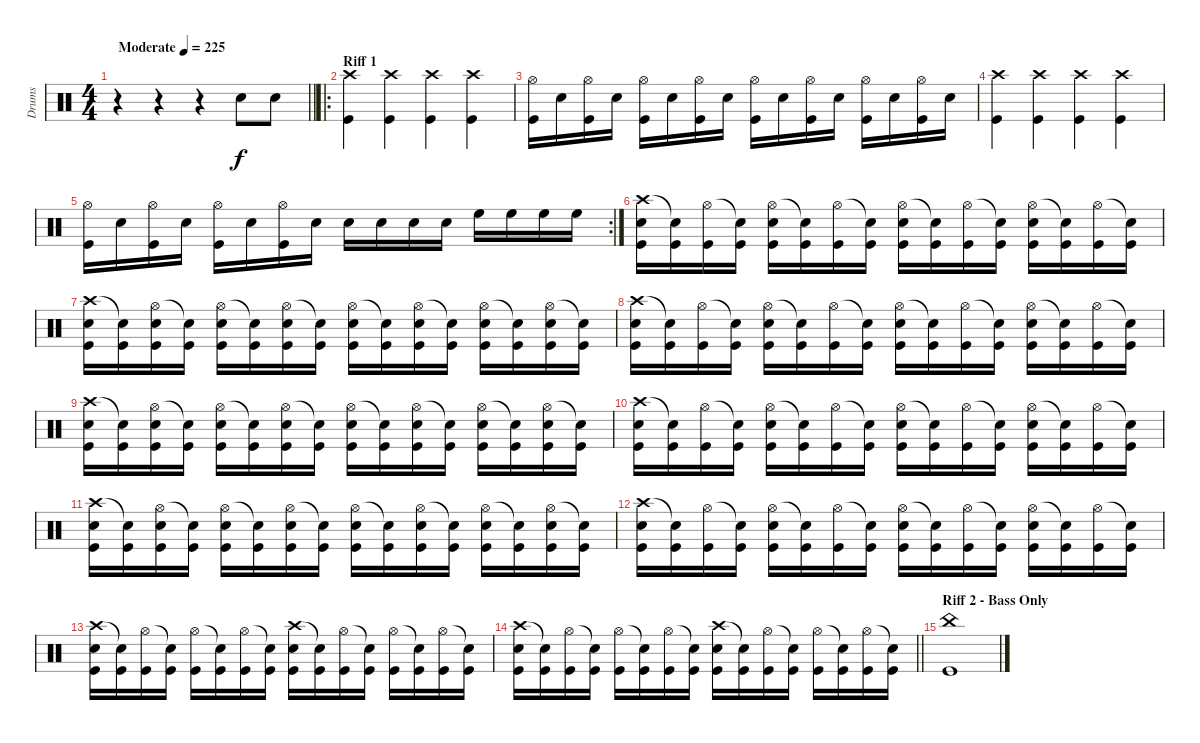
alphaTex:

\track ("Drums" "Drums") {instrument percussion}
\staff {score}
\articulation defaults
\ts (4 4)
\tempo (225 "Moderate")
\clef neutral
\barLineRight lightlight
\ks c
r.4{dy f} r.4 r.4 "Electric Snare (hit)".8 "Electric Snare (hit)".8 |
\ro
\section ("" "Riff 1")
("Crash high (hit)" "Kick (hit)").4 ("Crash high (hit)" "Kick (hit)").4 ("Crash high (hit)" "Kick (hit)").4 ("Crash high (hit)" "Kick (hit)").4 |
("Hi-Hat (open)" "Kick (hit)").16 "Electric Snare (hit)".16 ("Hi-Hat (open)" "Kick (hit)").16 "Electric Snare (hit)".16 ("Hi-Hat (open)" "Kick (hit)").16 "Electric Snare (hit)".16 ("Hi-Hat (open)" "Kick (hit)").16 "Electric Snare (hit)".16 ("Hi-Hat (open)" "Kick (hit)").16 "Electric Snare (hit)".16 ("Hi-Hat (open)" "Kick (hit)").16 "Electric Snare (hit)".16 ("Hi-Hat (open)" "Kick (hit)").16 "Electric Snare (hit)".16 ("Hi-Hat (open)" "Kick (hit)").16 "Electric Snare (hit)".16 |
("Crash high (hit)" "Kick (hit)").4 ("Crash high (hit)" "Kick (hit)").4 ("Crash high (hit)" "Kick (hit)").4 ("Crash high (hit)" "Kick (hit)").4 |
\rc 2
("Hi-Hat (open)" "Kick (hit)").16 "Electric Snare (hit)".16 ("Hi-Hat (open)" "Kick (hit)").16 "Electric Snare (hit)".16 ("Hi-Hat (open)" "Kick (hit)").16 "Electric Snare (hit)".16 ("Hi-Hat (open)" "Kick (hit)").16 "Electric Snare (hit)".16 "Electric Snare (hit)".16 "Electric Snare (hit)".16 "Electric Snare (hit)".16 "Electric Snare (hit)".16 "High Floor Tom (hit)".16 "High Floor Tom (hit)".16 "High Floor Tom (hit)".16 "High Floor Tom (hit)".16 |
("Crash high (hit)" "Electric Snare (hit)" "Kick (hit)").16 ("Snare (hit)"{t} "Kick (hit)").16 ("Hi-Hat (open)" "Kick (hit)").16 ("Snare (hit)"{t} "Kick (hit)").16 ("Hi-Hat (open)" "Electric Snare (hit)" "Kick (hit)").16 ("Snare (hit)"{t} "Kick (hit)").16 ("Hi-Hat (open)" "Kick (hit)").16 ("Snare (hit)"{t} "Kick (hit)").16 ("Hi-Hat (open)" "Electric Snare (hit)" "Kick (hit)").16 ("Snare (hit)"{t} "Kick (hit)").16 ("Hi-Hat (open)" "Kick (hit)").16 ("Snare (hit)"{t} "Kick (hit)").16 ("Hi-Hat (open)" "Electric Snare (hit)" "Kick (hit)").16 ("Snare (hit)"{t} "Kick (hit)").16 ("Hi-Hat (open)" "Kick (hit)").16 ("Snare (hit)"{t} "Kick (hit)").16 |
("Crash high (hit)" "Electric Snare (hit)" "Kick (hit)").16 ("Snare (hit)"{t} "Kick (hit)").16 ("Hi-Hat (open)" "Electric Snare (hit)" "Kick (hit)").16 ("Snare (hit)"{t} "Kick (hit)").16 ("Hi-Hat (open)" "Electric Snare (hit)" "Kick (hit)").16 ("Snare (hit)"{t} "Kick (hit)").16 ("Hi-Hat (open)" "Electric Snare (hit)" "Kick (hit)").16 ("Snare (hit)"{t} "Kick (hit)").16 ("Hi-Hat (open)" "Electric Snare (hit)" "Kick (hit)").16 ("Snare (hit)"{t} "Kick (hit)").16 ("Hi-Hat (open)" "Electric Snare (hit)" "Kick (hit)").16 ("Snare (hit)"{t} "Kick (hit)").16 ("Hi-Hat (open)" "Electric Snare (hit)" "Kick (hit)").16 ("Snare (hit)"{t} "Kick (hit)").16 ("Hi-Hat (open)" "Electric Snare (hit)" "Kick (hit)").16 ("Snare (hit)"{t} "Kick (hit)").16 |
("Crash high (hit)" "Electric Snare (hit)" "Kick (hit)").16 ("Snare (hit)"{t} "Kick (hit)").16 ("Hi-Hat (open)" "Kick (hit)").16 ("Snare (hit)"{t} "Kick (hit)").16 ("Hi-Hat (open)" "Electric Snare (hit)" "Kick (hit)").16 ("Snare (hit)"{t} "Kick (hit)").16 ("Hi-Hat (open)" "Kick (hit)").16 ("Snare (hit)"{t} "Kick (hit)").16 ("Hi-Hat (open)" "Electric Snare (hit)" "Kick (hit)").16 ("Snare (hit)"{t} "Kick (hit)").16 ("Hi-Hat (open)" "Kick (hit)").16 ("Snare (hit)"{t} "Kick (hit)").16 ("Hi-Hat (open)" "Electric Snare (hit)" "Kick (hit)").16 ("Snare (hit)"{t} "Kick (hit)").16 ("Hi-Hat (open)" "Kick (hit)").16 ("Snare (hit)"{t} "Kick (hit)").16 |
("Crash high (hit)" "Electric Snare (hit)" "Kick (hit)").16 ("Snare (hit)"{t} "Kick (hit)").16 ("Hi-Hat (open)" "Electric Snare (hit)" "Kick (hit)").16 ("Snare (hit)"{t} "Kick (hit)").16 ("Hi-Hat (open)" "Electric Snare (hit)" "Kick (hit)").16 ("Snare (hit)"{t} "Kick (hit)").16 ("Hi-Hat (open)" "Electric Snare (hit)" "Kick (hit)").16 ("Snare (hit)"{t} "Kick (hit)").16 ("Hi-Hat (open)" "Electric Snare (hit)" "Kick (hit)").16 ("Snare (hit)"{t} "Kick (hit)").16 ("Hi-Hat (open)" "Electric Snare (hit)" "Kick (hit)").16 ("Snare (hit)"{t} "Kick (hit)").16 ("Hi-Hat (open)" "Electric Snare (hit)" "Kick (hit)").16 ("Snare (hit)"{t} "Kick (hit)").16 ("Hi-Hat (open)" "Electric Snare (hit)" "Kick (hit)").16 ("Snare (hit)"{t} "Kick (hit)").16 |
("Crash high (hit)" "Electric Snare (hit)" "Kick (hit)").16 ("Snare (hit)"{t} "Kick (hit)").16 ("Hi-Hat (open)" "Kick (hit)").16 ("Snare (hit)"{t} "Kick (hit)").16 ("Hi-Hat (open)" "Electric Snare (hit)" "Kick (hit)").16 ("Snare (hit)"{t} "Kick (hit)").16 ("Hi-Hat (open)" "Kick (hit)").16 ("Snare (hit)"{t} "Kick (hit)").16 ("Hi-Hat (open)" "Electric Snare (hit)" "Kick (hit)").16 ("Snare (hit)"{t} "Kick (hit)").16 ("Hi-Hat (open)" "Kick (hit)").16 ("Snare (hit)"{t} "Kick (hit)").16 ("Hi-Hat (open)" "Electric Snare (hit)" "Kick (hit)").16 ("Snare (hit)"{t} "Kick (hit)").16 ("Hi-Hat (open)" "Kick (hit)").16 ("Snare (hit)"{t} "Kick (hit)").16 |
("Crash high (hit)" "Electric Snare (hit)" "Kick (hit)").16 ("Snare (hit)"{t} "Kick (hit)").16 ("Hi-Hat (open)" "Electric Snare (hit)" "Kick (hit)").16 ("Snare (hit)"{t} "Kick (hit)").16 ("Hi-Hat (open)" "Electric Snare (hit)" "Kick (hit)").16 ("Snare (hit)"{t} "Kick (hit)").16 ("Hi-Hat (open)" "Electric Snare (hit)" "Kick (hit)").16 ("Snare (hit)"{t} "Kick (hit)").16 ("Hi-Hat (open)" "Electric Snare (hit)" "Kick (hit)").16 ("Snare (hit)"{t} "Kick (hit)").16 ("Hi-Hat (open)" "Electric Snare (hit)" "Kick (hit)").16 ("Snare (hit)"{t} "Kick (hit)").16 ("Hi-Hat (open)" "Electric Snare (hit)" "Kick (hit)").16 ("Snare (hit)"{t} "Kick (hit)").16 ("Hi-Hat (open)" "Electric Snare (hit)" "Kick (hit)").16 ("Snare (hit)"{t} "Kick (hit)").16 |
("Crash high (hit)" "Electric Snare (hit)" "Kick (hit)").16 ("Snare (hit)"{t} "Kick (hit)").16 ("Hi-Hat (open)" "Kick (hit)").16 ("Snare (hit)"{t} "Kick (hit)").16 ("Hi-Hat (open)" "Electric Snare (hit)" "Kick (hit)").16 ("Snare (hit)"{t} "Kick (hit)").16 ("Hi-Hat (open)" "Kick (hit)").16 ("Snare (hit)"{t} "Kick (hit)").16 ("Hi-Hat (open)" "Electric Snare (hit)" "Kick (hit)").16 ("Snare (hit)"{t} "Kick (hit)").16 ("Hi-Hat (open)" "Kick (hit)").16 ("Snare (hit)"{t} "Kick (hit)").16 ("Hi-Hat (open)" "Electric Snare (hit)" "Kick (hit)").16 ("Snare (hit)"{t} "Kick (hit)").16 ("Hi-Hat (open)" "Kick (hit)").16 ("Snare (hit)"{t} "Kick (hit)").16 |
("Crash high (hit)" "Electric Snare (hit)" "Kick (hit)").16 ("Snare (hit)"{t} "Kick (hit)").16 ("Hi-Hat (open)" "Kick (hit)").16 ("Snare (hit)"{t} "Kick (hit)").16 ("Hi-Hat (open)" "Kick (hit)").16 ("Snare (hit)"{t} "Kick (hit)").16 ("Hi-Hat (open)" "Kick (hit)").16 ("Snare (hit)"{t} "Kick (hit)").16 ("Crash high (hit)" "Electric Snare (hit)" "Kick (hit)").16 ("Snare (hit)"{t} "Kick (hit)").16 ("Hi-Hat (open)" "Kick (hit)").16 ("Snare (hit)"{t} "Kick (hit)").16 ("Hi-Hat (open)" "Kick (hit)").16 ("Snare (hit)"{t} "Kick (hit)").16 ("Hi-Hat (open)" "Kick (hit)").16 ("Snare (hit)"{t} "Kick (hit)").16 |
\barLineRight lightlight
("Crash high (hit)" "Electric Snare (hit)" "Kick (hit)").16 ("Snare (hit)"{t} "Kick (hit)").16 ("Hi-Hat (open)" "Kick (hit)").16 ("Snare (hit)"{t} "Kick (hit)").16 ("Hi-Hat (open)" "Kick (hit)").16 ("Snare (hit)"{t} "Kick (hit)").16 ("Hi-Hat (open)" "Kick (hit)").16 ("Snare (hit)"{t} "Kick (hit)").16 ("Crash high (hit)" "Electric Snare (hit)" "Kick (hit)").16 ("Snare (hit)"{t} "Kick (hit)").16 ("Hi-Hat (open)" "Kick (hit)").16 ("Snare (hit)"{t} "Kick (hit)").16 ("Hi-Hat (open)" "Kick (hit)").16 ("Snare (hit)"{t} "Kick (hit)").16 ("Hi-Hat (open)" "Kick (hit)").16 ("Snare (hit)"{t} "Kick (hit)").16 |
\section ("" "Riff 2 - Bass Only")
("China (hit)" "Kick (hit)").1
